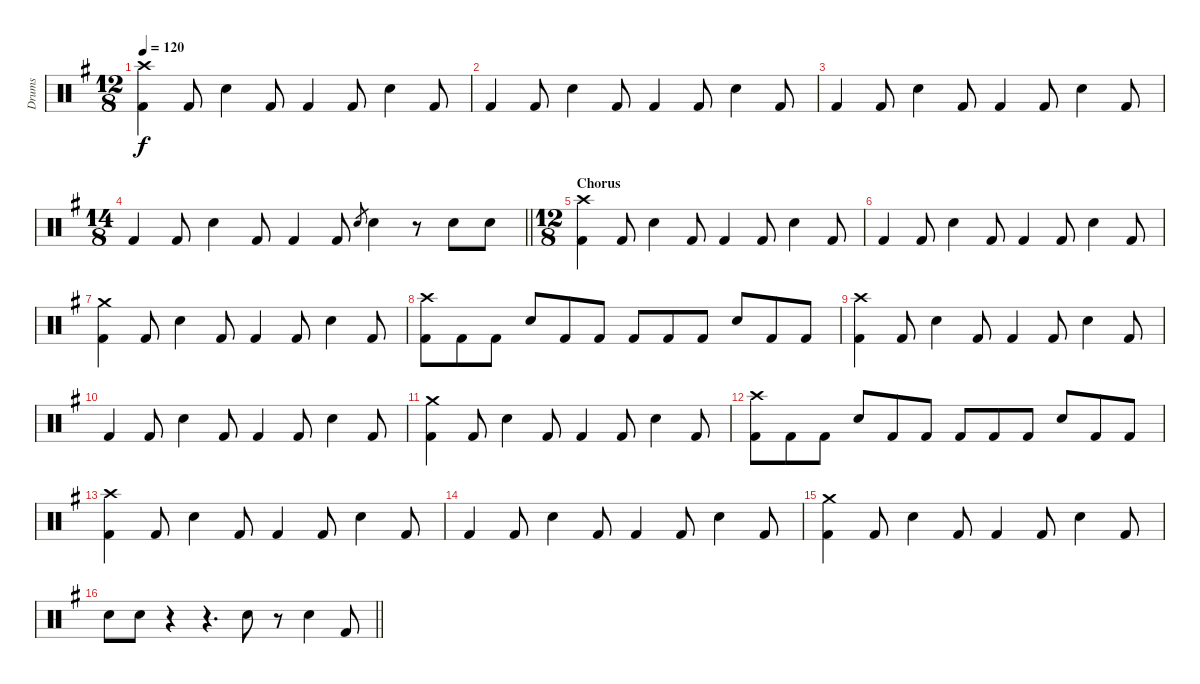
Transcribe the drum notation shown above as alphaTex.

\track ("Drums" "Drums") {instrument percussion}
\staff {score}
\articulation defaults
\ts (12 8)
\tempo 120
\clef neutral
\ks eminor
("Kick (hit) 2" "Crash high (hit)").4{dy f} "Kick (hit) 2".8 "Snare (hit) 2".4 "Kick (hit) 2".8 "Kick (hit) 2".4 "Kick (hit) 2".8 "Snare (hit) 2".4 "Kick (hit) 2".8 |
"Kick (hit) 2".4 "Kick (hit) 2".8 "Snare (hit) 2".4 "Kick (hit) 2".8 "Kick (hit) 2".4 "Kick (hit) 2".8 "Snare (hit) 2".4 "Kick (hit) 2".8 |
"Kick (hit) 2".4 "Kick (hit) 2".8 "Snare (hit) 2".4 "Kick (hit) 2".8 "Kick (hit) 2".4 "Kick (hit) 2".8 "Snare (hit) 2".4 "Kick (hit) 2".8 |
\ts (14 8)
\barLineRight lightlight "Kick (hit) 2".4 "Kick (hit) 2".8 "Snare (hit) 2".4 "Kick (hit) 2".8 "Kick (hit) 2".4 "Kick (hit) 2".8 "Snare (hit) 2".8{gr} "Snare (hit) 2".4
r.8 "Snare (hit) 2".8 "Snare (hit) 2".8 |
\ts (12 8)
\section ("" "Chorus")
("Kick (hit) 2" "Crash high (hit)").4 "Kick (hit) 2".8 "Snare (hit) 2".4 "Kick (hit) 2".8 "Kick (hit) 2".4 "Kick (hit) 2".8 "Snare (hit) 2".4 "Kick (hit) 2".8 |
"Kick (hit) 2".4 "Kick (hit) 2".8 "Snare (hit) 2".4 "Kick (hit) 2".8 "Kick (hit) 2".4 "Kick (hit) 2".8 "Snare (hit) 2".4 "Kick (hit) 2".8 |
("Kick (hit) 2" "Crash medium (hit)").4 "Kick (hit) 2".8 "Snare (hit) 2".4 "Kick (hit) 2".8 "Kick (hit) 2".4 "Kick (hit) 2".8 "Snare (hit) 2".4 "Kick (hit) 2".8 |
("Kick (hit) 2" "Crash high (hit)").8 "Kick (hit) 2".8 "Kick (hit) 2".8 "Snare (hit) 2".8 "Kick (hit) 2".8 "Kick (hit) 2".8 "Kick (hit) 2".8 "Kick (hit) 2".8 "Kick (hit) 2".8 "Snare (hit) 2".8 "Kick (hit) 2".8 "Kick (hit) 2".8 |
("Kick (hit) 2" "Crash high (hit)").4 "Kick (hit) 2".8 "Snare (hit) 2".4 "Kick (hit) 2".8 "Kick (hit) 2".4 "Kick (hit) 2".8 "Snare (hit) 2".4 "Kick (hit) 2".8 |
"Kick (hit) 2".4 "Kick (hit) 2".8 "Snare (hit) 2".4 "Kick (hit) 2".8 "Kick (hit) 2".4 "Kick (hit) 2".8 "Snare (hit) 2".4 "Kick (hit) 2".8 |
("Kick (hit) 2" "Crash medium (hit)").4 "Kick (hit) 2".8 "Snare (hit) 2".4 "Kick (hit) 2".8 "Kick (hit) 2".4 "Kick (hit) 2".8 "Snare (hit) 2".4 "Kick (hit) 2".8 |
("Kick (hit) 2" "Crash high (hit)").8 "Kick (hit) 2".8 "Kick (hit) 2".8 "Snare (hit) 2".8 "Kick (hit) 2".8 "Kick (hit) 2".8 "Kick (hit) 2".8 "Kick (hit) 2".8 "Kick (hit) 2".8 "Snare (hit) 2".8 "Kick (hit) 2".8 "Kick (hit) 2".8 |
("Kick (hit) 2" "Crash high (hit)").4 "Kick (hit) 2".8 "Snare (hit) 2".4 "Kick (hit) 2".8 "Kick (hit) 2".4 "Kick (hit) 2".8 "Snare (hit) 2".4 "Kick (hit) 2".8 |
"Kick (hit) 2".4 "Kick (hit) 2".8 "Snare (hit) 2".4 "Kick (hit) 2".8 "Kick (hit) 2".4 "Kick (hit) 2".8 "Snare (hit) 2".4 "Kick (hit) 2".8 |
("Kick (hit) 2" "Crash medium (hit)").4 "Kick (hit) 2".8 "Snare (hit) 2".4 "Kick (hit) 2".8 "Kick (hit) 2".4 "Kick (hit) 2".8 "Snare (hit) 2".4 "Kick (hit) 2".8 |
\barLineRight lightlight "Snare (hit) 2".8 "Snare (hit) 2".8
r.4 r.4{d} "Snare (hit) 2".8 r.8 "Snare (hit) 2".4 "Kick (hit) 2".8
